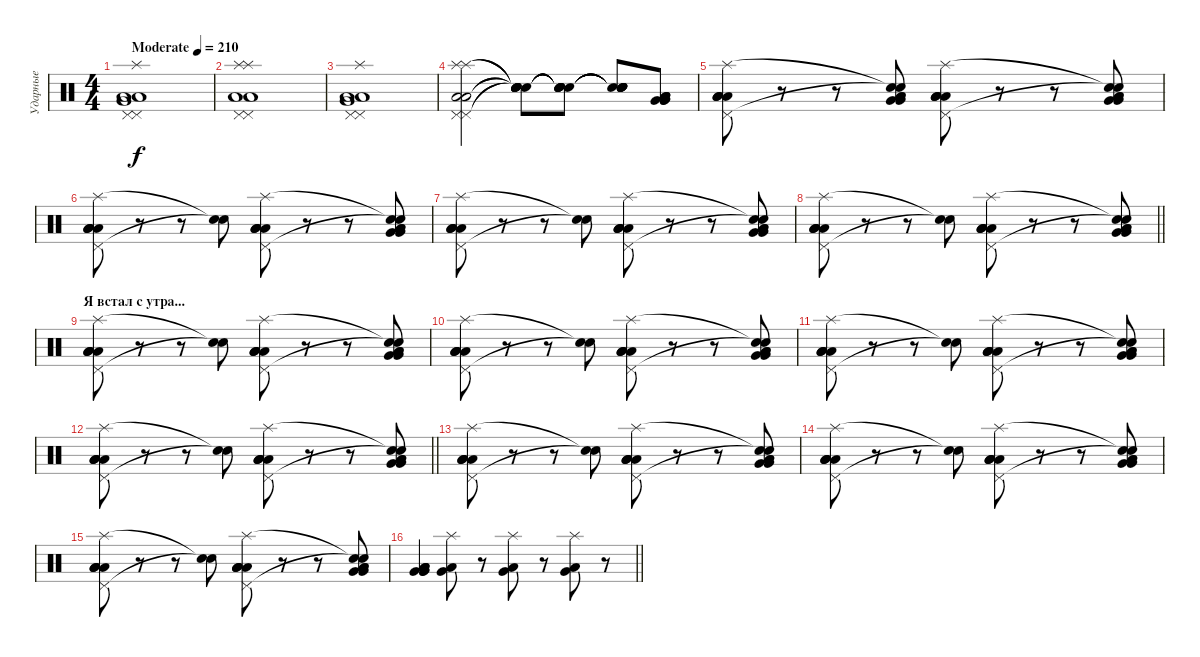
\track ("Ударные" "Ударные") {instrument percussion}
\staff {score}
\articulation defaults
\ts (4 4)
\tempo (210 "Moderate")
\clef neutral
\ks c
("Pedal Hi-Hat (hit)" "Pedal Hi-Hat (hit)" "Very Low Tom (hit)" "Low Tom (hit)" "Low Tom (hit)" "Splash (hit)").1{dy f} |
("Splash (hit)" "Splash (hit)" "Pedal Hi-Hat (hit)" "Pedal Hi-Hat (hit)" "Low Tom (hit)" "Low Tom (hit)").1 |
("Pedal Hi-Hat (hit)" "Pedal Hi-Hat (hit)" "Very Low Tom (hit)" "Low Tom (hit)" "Low Tom (hit)" "Splash (hit)").1 |
("Splash (hit)" "Splash (hit)" "Pedal Hi-Hat (hit)" "Pedal Hi-Hat (hit)" "Low Tom (hit)" "Low Tom (hit)").2 ("Snare (hit)"{t} "Snare (hit)"{t} "Snare (hit)"{t} "Snare (hit)"{t} "Snare (hit)"{t} "Snare (hit)"{t}).8 ("Snare (hit)"{t} "Snare (hit)"{t} "Snare (hit)"{t} "Snare (hit)"{t} "Snare (hit)"{t} "Snare (hit)"{t}).8 ("Snare (hit)"{t} "Snare (hit)"{t} "Snare (hit)"{t} "Snare (hit)"{t} "Snare (hit)"{t} "Snare (hit)"{t}).8 ("Low Tom (hit)" "Low Tom (hit)" "Low Tom (hit)" "Very Low Tom (hit)" "Very Low Tom (hit)" "Very Low Tom (hit)").8 |
("Splash (hit)" "Pedal Hi-Hat (hit)" "Low Tom (hit)" "Low Tom (hit)" "Low Tom (hit)" "Low Tom (hit)").8 r.8 r.8 ("Snare (hit)"{t} "Snare (hit)"{t} "Very Low Tom (hit)" "Very Low Tom (hit)" "Low Tom (hit)" "Low Tom (hit)").8 ("Splash (hit)" "Pedal Hi-Hat (hit)" "Low Tom (hit)" "Low Tom (hit)" "Low Tom (hit)" "Low Tom (hit)").8 r.8 r.8 ("Snare (hit)"{t} "Snare (hit)"{t} "Very Low Tom (hit)" "Very Low Tom (hit)" "Low Tom (hit)" "Low Tom (hit)").8 |
("Splash (hit)" "Pedal Hi-Hat (hit)" "Low Tom (hit)" "Low Tom (hit)" "Low Tom (hit)" "Low Tom (hit)").8 r.8 r.8 ("Snare (hit)"{t} "Snare (hit)"{t}).8 ("Splash (hit)" "Pedal Hi-Hat (hit)" "Low Tom (hit)" "Low Tom (hit)" "Low Tom (hit)" "Low Tom (hit)").8 r.8 r.8 ("Snare (hit)"{t} "Snare (hit)"{t} "Very Low Tom (hit)" "Very Low Tom (hit)" "Low Tom (hit)" "Low Tom (hit)").8 |
("Splash (hit)" "Pedal Hi-Hat (hit)" "Low Tom (hit)" "Low Tom (hit)" "Low Tom (hit)" "Low Tom (hit)").8 r.8 r.8 ("Snare (hit)"{t} "Snare (hit)"{t}).8 ("Splash (hit)" "Pedal Hi-Hat (hit)" "Low Tom (hit)" "Low Tom (hit)" "Low Tom (hit)" "Low Tom (hit)").8 r.8 r.8 ("Snare (hit)"{t} "Snare (hit)"{t} "Very Low Tom (hit)" "Very Low Tom (hit)" "Low Tom (hit)" "Low Tom (hit)").8 |
\barLineRight lightlight
("Splash (hit)" "Pedal Hi-Hat (hit)" "Low Tom (hit)" "Low Tom (hit)" "Low Tom (hit)" "Low Tom (hit)").8 r.8 r.8 ("Snare (hit)"{t} "Snare (hit)"{t}).8 ("Splash (hit)" "Pedal Hi-Hat (hit)" "Low Tom (hit)" "Low Tom (hit)" "Low Tom (hit)" "Low Tom (hit)").8 r.8 r.8 ("Snare (hit)"{t} "Snare (hit)"{t} "Very Low Tom (hit)" "Very Low Tom (hit)" "Low Tom (hit)" "Low Tom (hit)").8 |
\section ("" "Я встал с утра...")
("Splash (hit)" "Pedal Hi-Hat (hit)" "Low Tom (hit)" "Low Tom (hit)" "Low Tom (hit)" "Low Tom (hit)").8 r.8 r.8 ("Snare (hit)"{t} "Snare (hit)"{t}).8 ("Splash (hit)" "Pedal Hi-Hat (hit)" "Low Tom (hit)" "Low Tom (hit)" "Low Tom (hit)" "Low Tom (hit)").8 r.8 r.8 ("Snare (hit)"{t} "Snare (hit)"{t} "Very Low Tom (hit)" "Very Low Tom (hit)" "Low Tom (hit)" "Low Tom (hit)").8 |
("Splash (hit)" "Pedal Hi-Hat (hit)" "Low Tom (hit)" "Low Tom (hit)" "Low Tom (hit)" "Low Tom (hit)").8 r.8 r.8 ("Snare (hit)"{t} "Snare (hit)"{t}).8 ("Splash (hit)" "Pedal Hi-Hat (hit)" "Low Tom (hit)" "Low Tom (hit)" "Low Tom (hit)" "Low Tom (hit)").8 r.8 r.8 ("Snare (hit)"{t} "Snare (hit)"{t} "Very Low Tom (hit)" "Very Low Tom (hit)" "Low Tom (hit)" "Low Tom (hit)").8 |
("Splash (hit)" "Pedal Hi-Hat (hit)" "Low Tom (hit)" "Low Tom (hit)" "Low Tom (hit)" "Low Tom (hit)").8 r.8 r.8 ("Snare (hit)"{t} "Snare (hit)"{t}).8 ("Splash (hit)" "Pedal Hi-Hat (hit)" "Low Tom (hit)" "Low Tom (hit)" "Low Tom (hit)" "Low Tom (hit)").8 r.8 r.8 ("Snare (hit)"{t} "Snare (hit)"{t} "Very Low Tom (hit)" "Very Low Tom (hit)" "Low Tom (hit)" "Low Tom (hit)").8 |
\barLineRight lightlight
("Splash (hit)" "Pedal Hi-Hat (hit)" "Low Tom (hit)" "Low Tom (hit)" "Low Tom (hit)" "Low Tom (hit)").8 r.8 r.8 ("Snare (hit)"{t} "Snare (hit)"{t}).8 ("Splash (hit)" "Pedal Hi-Hat (hit)" "Low Tom (hit)" "Low Tom (hit)" "Low Tom (hit)" "Low Tom (hit)").8 r.8 r.8 ("Snare (hit)"{t} "Snare (hit)"{t} "Very Low Tom (hit)" "Very Low Tom (hit)" "Low Tom (hit)" "Low Tom (hit)").8 |
("Splash (hit)" "Pedal Hi-Hat (hit)" "Low Tom (hit)" "Low Tom (hit)" "Low Tom (hit)" "Low Tom (hit)").8 r.8 r.8 ("Snare (hit)"{t} "Snare (hit)"{t}).8 ("Splash (hit)" "Pedal Hi-Hat (hit)" "Low Tom (hit)" "Low Tom (hit)" "Low Tom (hit)" "Low Tom (hit)").8 r.8 r.8 ("Snare (hit)"{t} "Snare (hit)"{t} "Very Low Tom (hit)" "Very Low Tom (hit)" "Low Tom (hit)" "Low Tom (hit)").8 |
("Splash (hit)" "Pedal Hi-Hat (hit)" "Low Tom (hit)" "Low Tom (hit)" "Low Tom (hit)" "Low Tom (hit)").8 r.8 r.8 ("Snare (hit)"{t} "Snare (hit)"{t}).8 ("Splash (hit)" "Pedal Hi-Hat (hit)" "Low Tom (hit)" "Low Tom (hit)" "Low Tom (hit)" "Low Tom (hit)").8 r.8 r.8 ("Snare (hit)"{t} "Snare (hit)"{t} "Very Low Tom (hit)" "Very Low Tom (hit)" "Low Tom (hit)" "Low Tom (hit)").8 |
("Splash (hit)" "Pedal Hi-Hat (hit)" "Low Tom (hit)" "Low Tom (hit)" "Low Tom (hit)" "Low Tom (hit)").8 r.8 r.8 ("Snare (hit)"{t} "Snare (hit)"{t}).8 ("Splash (hit)" "Pedal Hi-Hat (hit)" "Low Tom (hit)" "Low Tom (hit)" "Low Tom (hit)" "Low Tom (hit)").8 r.8 r.8 ("Snare (hit)"{t} "Snare (hit)"{t} "Very Low Tom (hit)" "Very Low Tom (hit)" "Low Tom (hit)" "Low Tom (hit)").8 |
\barLineRight lightlight
("Very Low Tom (hit)" "Very Low Tom (hit)" "Very Low Tom (hit)" "Low Tom (hit)" "Low Tom (hit)" "Low Tom (hit)").4 ("Very Low Tom (hit)" "Low Tom (hit)" "Splash (hit)").8 r.8 ("Very Low Tom (hit)" "Low Tom (hit)" "Splash (hit)").8 r.8 ("Very Low Tom (hit)" "Low Tom (hit)" "Splash (hit)").8 r.8
